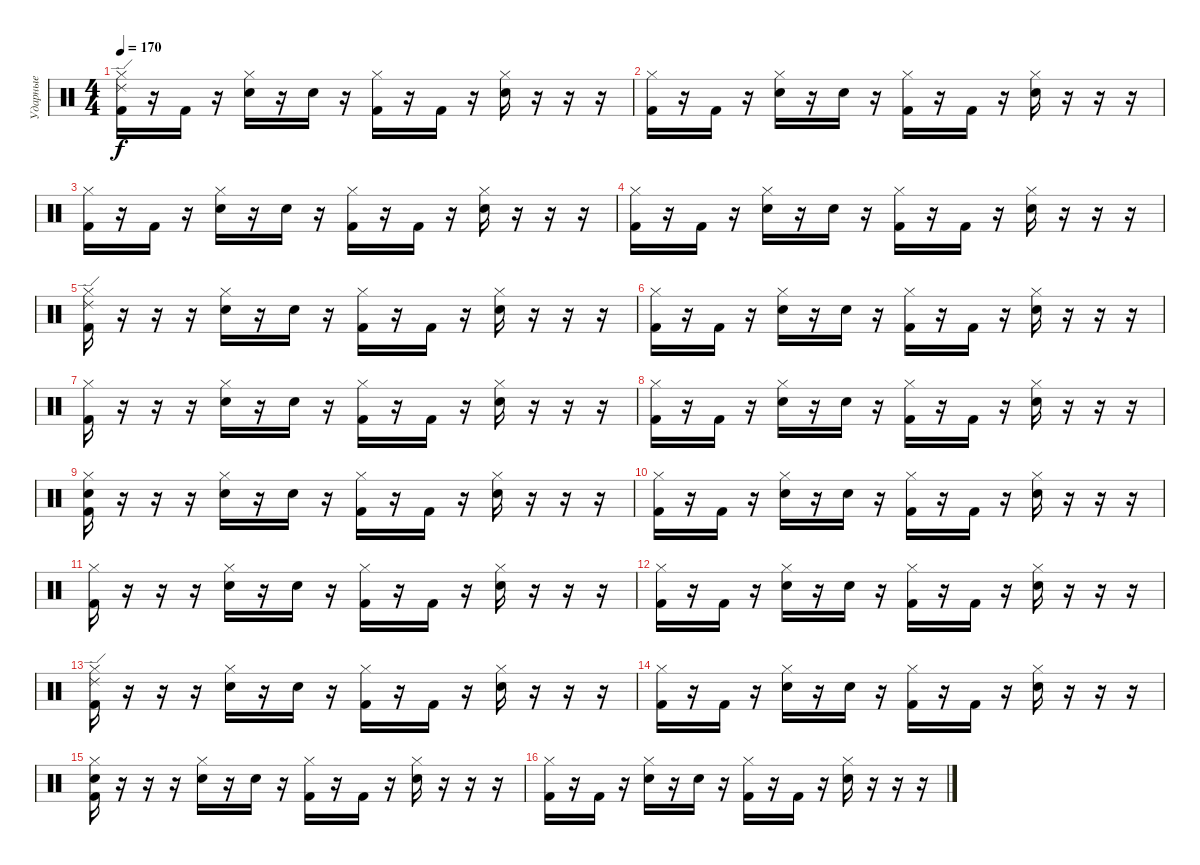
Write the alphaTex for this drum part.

\track ("Ударные" "Ударные") {instrument percussion}
\staff {score}
\articulation defaults
\ts (4 4)
\tempo 170
\clef neutral
\ks c
("Hi-Hat (closed)" "Ride (edge) 2" "Kick (hit) 2").16{dy f} r.16 "Kick (hit) 2".16 r.16 ("Hi-Hat (closed)" "Snare (hit) 2").16 r.16 "Snare (hit) 2".16 r.16 ("Hi-Hat (closed)" "Kick (hit) 2").16 r.16 "Kick (hit) 2".16 r.16 ("Hi-Hat (closed)" "Snare (hit) 2").16 r.16 r.16 r.16 |
("Hi-Hat (closed)" "Kick (hit) 2").16 r.16 "Kick (hit) 2".16 r.16 ("Hi-Hat (closed)" "Snare (hit) 2").16 r.16 "Snare (hit) 2".16 r.16 ("Hi-Hat (closed)" "Kick (hit) 2").16 r.16 "Kick (hit) 2".16 r.16 ("Hi-Hat (closed)" "Snare (hit) 2").16 r.16 r.16 r.16 |
("Hi-Hat (closed)" "Kick (hit) 2").16 r.16 "Kick (hit) 2".16 r.16 ("Hi-Hat (closed)" "Snare (hit) 2").16 r.16 "Snare (hit) 2".16 r.16 ("Hi-Hat (closed)" "Kick (hit) 2").16 r.16 "Kick (hit) 2".16 r.16 ("Hi-Hat (closed)" "Snare (hit) 2").16 r.16 r.16 r.16 |
("Hi-Hat (closed)" "Kick (hit) 2").16 r.16 "Kick (hit) 2".16 r.16 ("Hi-Hat (closed)" "Snare (hit) 2").16 r.16 "Snare (hit) 2".16 r.16 ("Hi-Hat (closed)" "Kick (hit) 2").16 r.16 "Kick (hit) 2".16 r.16 ("Hi-Hat (closed)" "Snare (hit) 2").16 r.16 r.16 r.16 |
("Ride (edge) 2" "Hi-Hat (closed)" "Kick (hit) 2").16 r.16 r.16 r.16 ("Hi-Hat (closed)" "Snare (hit) 2").16 r.16 "Snare (hit) 2".16 r.16 ("Hi-Hat (closed)" "Kick (hit) 2").16 r.16 "Kick (hit) 2".16 r.16 ("Hi-Hat (closed)" "Snare (hit) 2").16 r.16 r.16 r.16 |
("Hi-Hat (closed)" "Kick (hit) 2").16 r.16 "Kick (hit) 2".16 r.16 ("Hi-Hat (closed)" "Snare (hit) 2").16 r.16 "Snare (hit) 2".16 r.16 ("Hi-Hat (closed)" "Kick (hit) 2").16 r.16 "Kick (hit) 2".16 r.16 ("Hi-Hat (closed)" "Snare (hit) 2").16 r.16 r.16 r.16 |
("Hi-Hat (closed)" "Kick (hit) 2").16 r.16 r.16 r.16 ("Hi-Hat (closed)" "Snare (hit) 2").16 r.16 "Snare (hit) 2".16 r.16 ("Hi-Hat (closed)" "Kick (hit) 2").16 r.16 "Kick (hit) 2".16 r.16 ("Hi-Hat (closed)" "Snare (hit) 2").16 r.16 r.16 r.16 |
("Hi-Hat (closed)" "Kick (hit) 2").16 r.16 "Kick (hit) 2".16 r.16 ("Hi-Hat (closed)" "Snare (hit) 2").16 r.16 "Snare (hit) 2".16 r.16 ("Hi-Hat (closed)" "Kick (hit) 2").16 r.16 "Kick (hit) 2".16 r.16 ("Hi-Hat (closed)" "Snare (hit) 2").16 r.16 r.16 r.16 |
("Hi-Hat (closed)" "Snare (hit) 2" "Kick (hit) 2").16 r.16 r.16 r.16 ("Hi-Hat (closed)" "Snare (hit) 2").16 r.16 "Snare (hit) 2".16 r.16 ("Hi-Hat (closed)" "Kick (hit) 2").16 r.16 "Kick (hit) 2".16 r.16 ("Hi-Hat (closed)" "Snare (hit) 2").16 r.16 r.16 r.16 |
("Hi-Hat (closed)" "Kick (hit) 2").16 r.16 "Kick (hit) 2".16 r.16 ("Hi-Hat (closed)" "Snare (hit) 2").16 r.16 "Snare (hit) 2".16 r.16 ("Hi-Hat (closed)" "Kick (hit) 2").16 r.16 "Kick (hit) 2".16 r.16 ("Hi-Hat (closed)" "Snare (hit) 2").16 r.16 r.16 r.16 |
("Hi-Hat (closed)" "Kick (hit) 2").16 r.16 r.16 r.16 ("Hi-Hat (closed)" "Snare (hit) 2").16 r.16 "Snare (hit) 2".16 r.16 ("Hi-Hat (closed)" "Kick (hit) 2").16 r.16 "Kick (hit) 2".16 r.16 ("Hi-Hat (closed)" "Snare (hit) 2").16 r.16 r.16 r.16 |
("Hi-Hat (closed)" "Kick (hit) 2").16 r.16 "Kick (hit) 2".16 r.16 ("Hi-Hat (closed)" "Snare (hit) 2").16 r.16 "Snare (hit) 2".16 r.16 ("Hi-Hat (closed)" "Kick (hit) 2").16 r.16 "Kick (hit) 2".16 r.16 ("Hi-Hat (closed)" "Snare (hit) 2").16 r.16 r.16 r.16 |
("Hi-Hat (closed)" "Ride (edge) 2" "Kick (hit) 2").16 r.16 r.16 r.16 ("Hi-Hat (closed)" "Snare (hit) 2").16 r.16 "Snare (hit) 2".16 r.16 ("Hi-Hat (closed)" "Kick (hit) 2").16 r.16 "Kick (hit) 2".16 r.16 ("Hi-Hat (closed)" "Snare (hit) 2").16 r.16 r.16 r.16 |
("Hi-Hat (closed)" "Kick (hit) 2").16 r.16 "Kick (hit) 2".16 r.16 ("Hi-Hat (closed)" "Snare (hit) 2").16 r.16 "Snare (hit) 2".16 r.16 ("Hi-Hat (closed)" "Kick (hit) 2").16 r.16 "Kick (hit) 2".16 r.16 ("Hi-Hat (closed)" "Snare (hit) 2").16 r.16 r.16 r.16 |
("Hi-Hat (closed)" "Snare (hit) 2" "Kick (hit) 2").16 r.16 r.16 r.16 ("Hi-Hat (closed)" "Snare (hit) 2").16 r.16 "Snare (hit) 2".16 r.16 ("Hi-Hat (closed)" "Kick (hit) 2").16 r.16 "Kick (hit) 2".16 r.16 ("Hi-Hat (closed)" "Snare (hit) 2").16 r.16 r.16 r.16 |
("Hi-Hat (closed)" "Kick (hit) 2").16 r.16 "Kick (hit) 2".16 r.16 ("Hi-Hat (closed)" "Snare (hit) 2").16 r.16 "Snare (hit) 2".16 r.16 ("Hi-Hat (closed)" "Kick (hit) 2").16 r.16 "Kick (hit) 2".16 r.16 ("Hi-Hat (closed)" "Snare (hit) 2").16 r.16 r.16 r.16
